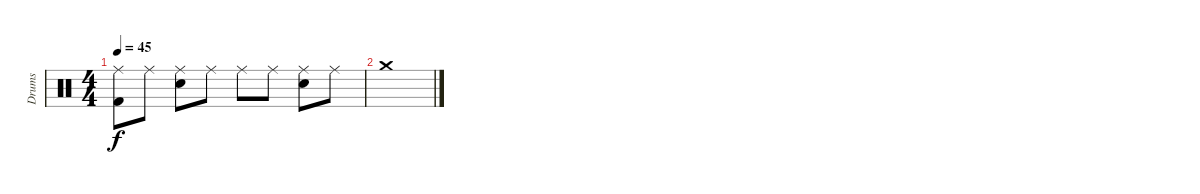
\track ("Drums" "Drums") {instrument percussion}
\staff {score}
\articulation defaults
\ts (4 4)
\tempo 45
\clef neutral
\ks c
("Ride (middle)" "Kick (hit) 2").8{dy f} "Ride (middle)".8 ("Ride (middle)" "Snare (hit) 2").8 "Ride (middle)".8 "Ride (middle)".8 "Ride (middle)".8 ("Ride (middle)" "Snare (hit) 2").8 "Ride (middle)".8 |
"Crash medium (hit)".1
